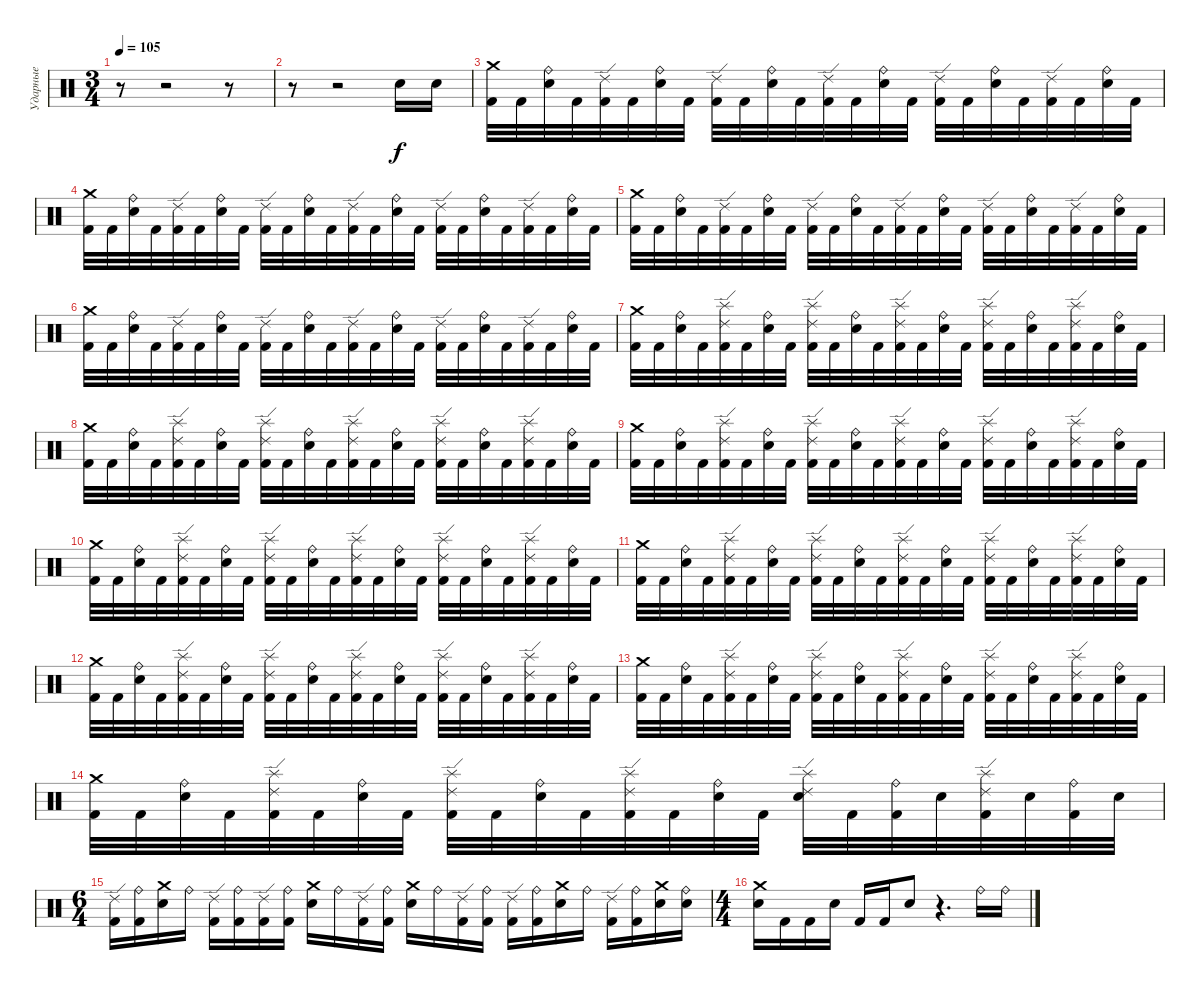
\track ("Ударные" "Ударные") {instrument percussion}
\staff {score}
\articulation defaults
\ts (3 4)
\tempo 105
\clef neutral
\ks c
r.8{dy f} r.2 r.8 |
r.8 r.2 "Electric Snare (hit)".16 "Electric Snare (hit)".16 |
("Crash medium (hit)" "Kick (hit) 2").32 "Kick (hit) 2".32 ("Ride (bell)" "Electric Snare (hit)").32 "Kick (hit) 2".32 ("Ride (edge) 2" "Kick (hit) 2").32 "Kick (hit) 2".32 ("Ride (bell)" "Electric Snare (hit)").32 "Kick (hit) 2".32 ("Ride (edge) 2" "Kick (hit) 2").32 "Kick (hit) 2".32 ("Ride (bell)" "Electric Snare (hit)").32 "Kick (hit) 2".32 ("Ride (edge) 2" "Kick (hit) 2").32 "Kick (hit) 2".32 ("Ride (bell)" "Electric Snare (hit)").32 "Kick (hit) 2".32 ("Ride (edge) 2" "Kick (hit) 2").32 "Kick (hit) 2".32 ("Ride (bell)" "Electric Snare (hit)").32 "Kick (hit) 2".32 ("Ride (edge) 2" "Kick (hit) 2").32 "Kick (hit) 2".32 ("Ride (bell)" "Electric Snare (hit)").32 "Kick (hit) 2".32 |
("Crash medium (hit)" "Kick (hit) 2").32 "Kick (hit) 2".32 ("Ride (bell)" "Electric Snare (hit)").32 "Kick (hit) 2".32 ("Ride (edge) 2" "Kick (hit) 2").32 "Kick (hit) 2".32 ("Ride (bell)" "Electric Snare (hit)").32 "Kick (hit) 2".32 ("Ride (edge) 2" "Kick (hit) 2").32 "Kick (hit) 2".32 ("Ride (bell)" "Electric Snare (hit)").32 "Kick (hit) 2".32 ("Ride (edge) 2" "Kick (hit) 2").32 "Kick (hit) 2".32 ("Ride (bell)" "Electric Snare (hit)").32 "Kick (hit) 2".32 ("Ride (edge) 2" "Kick (hit) 2").32 "Kick (hit) 2".32 ("Ride (bell)" "Electric Snare (hit)").32 "Kick (hit) 2".32 ("Ride (edge) 2" "Kick (hit) 2").32 "Kick (hit) 2".32 ("Ride (bell)" "Electric Snare (hit)").32 "Kick (hit) 2".32 |
("Crash medium (hit)" "Kick (hit) 2").32 "Kick (hit) 2".32 ("Ride (bell)" "Electric Snare (hit)").32 "Kick (hit) 2".32 ("Ride (edge) 2" "Kick (hit) 2").32 "Kick (hit) 2".32 ("Ride (bell)" "Electric Snare (hit)").32 "Kick (hit) 2".32 ("Ride (edge) 2" "Kick (hit) 2").32 "Kick (hit) 2".32 ("Ride (bell)" "Electric Snare (hit)").32 "Kick (hit) 2".32 ("Ride (edge) 2" "Kick (hit) 2").32 "Kick (hit) 2".32 ("Ride (bell)" "Electric Snare (hit)").32 "Kick (hit) 2".32 ("Ride (edge) 2" "Kick (hit) 2").32 "Kick (hit) 2".32 ("Ride (bell)" "Electric Snare (hit)").32 "Kick (hit) 2".32 ("Ride (edge) 2" "Kick (hit) 2").32 "Kick (hit) 2".32 ("Ride (bell)" "Electric Snare (hit)").32 "Kick (hit) 2".32 |
("Crash medium (hit)" "Kick (hit) 2").32 "Kick (hit) 2".32 ("Ride (bell)" "Electric Snare (hit)").32 "Kick (hit) 2".32 ("Ride (edge) 2" "Kick (hit) 2").32 "Kick (hit) 2".32 ("Ride (bell)" "Electric Snare (hit)").32 "Kick (hit) 2".32 ("Ride (edge) 2" "Kick (hit) 2").32 "Kick (hit) 2".32 ("Ride (bell)" "Electric Snare (hit)").32 "Kick (hit) 2".32 ("Ride (edge) 2" "Kick (hit) 2").32 "Kick (hit) 2".32 ("Ride (bell)" "Electric Snare (hit)").32 "Kick (hit) 2".32 ("Ride (edge) 2" "Kick (hit) 2").32 "Kick (hit) 2".32 ("Ride (bell)" "Electric Snare (hit)").32 "Kick (hit) 2".32 ("Ride (edge) 2" "Kick (hit) 2").32 "Kick (hit) 2".32 ("Ride (bell)" "Electric Snare (hit)").32 "Kick (hit) 2".32 |
("Crash medium (hit)" "Kick (hit) 2").32 "Kick (hit) 2".32 ("Ride (bell)" "Electric Snare (hit)").32 "Kick (hit) 2".32 ("Splash (hit)" "Ride (edge) 2" "Kick (hit) 2").32 "Kick (hit) 2".32 ("Ride (bell)" "Electric Snare (hit)").32 "Kick (hit) 2".32 ("Splash (hit)" "Ride (edge) 2" "Kick (hit) 2").32 "Kick (hit) 2".32 ("Ride (bell)" "Electric Snare (hit)").32 "Kick (hit) 2".32 ("Splash (hit)" "Ride (edge) 2" "Kick (hit) 2").32 "Kick (hit) 2".32 ("Ride (bell)" "Electric Snare (hit)").32 "Kick (hit) 2".32 ("Splash (hit)" "Ride (edge) 2" "Kick (hit) 2").32 "Kick (hit) 2".32 ("Ride (bell)" "Electric Snare (hit)").32 "Kick (hit) 2".32 ("Splash (hit)" "Ride (edge) 2" "Kick (hit) 2").32 "Kick (hit) 2".32 ("Ride (bell)" "Electric Snare (hit)").32 "Kick (hit) 2".32 |
("Crash medium (hit)" "Kick (hit) 2").32 "Kick (hit) 2".32 ("Ride (bell)" "Electric Snare (hit)").32 "Kick (hit) 2".32 ("Splash (hit)" "Ride (edge) 2" "Kick (hit) 2").32 "Kick (hit) 2".32 ("Ride (bell)" "Electric Snare (hit)").32 "Kick (hit) 2".32 ("Splash (hit)" "Ride (edge) 2" "Kick (hit) 2").32 "Kick (hit) 2".32 ("Ride (bell)" "Electric Snare (hit)").32 "Kick (hit) 2".32 ("Splash (hit)" "Ride (edge) 2" "Kick (hit) 2").32 "Kick (hit) 2".32 ("Ride (bell)" "Electric Snare (hit)").32 "Kick (hit) 2".32 ("Splash (hit)" "Ride (edge) 2" "Kick (hit) 2").32 "Kick (hit) 2".32 ("Ride (bell)" "Electric Snare (hit)").32 "Kick (hit) 2".32 ("Splash (hit)" "Ride (edge) 2" "Kick (hit) 2").32 "Kick (hit) 2".32 ("Ride (bell)" "Electric Snare (hit)").32 "Kick (hit) 2".32 |
("Crash medium (hit)" "Kick (hit) 2").32 "Kick (hit) 2".32 ("Ride (bell)" "Electric Snare (hit)").32 "Kick (hit) 2".32 ("Splash (hit)" "Ride (edge) 2" "Kick (hit) 2").32 "Kick (hit) 2".32 ("Ride (bell)" "Electric Snare (hit)").32 "Kick (hit) 2".32 ("Splash (hit)" "Ride (edge) 2" "Kick (hit) 2").32 "Kick (hit) 2".32 ("Ride (bell)" "Electric Snare (hit)").32 "Kick (hit) 2".32 ("Splash (hit)" "Ride (edge) 2" "Kick (hit) 2").32 "Kick (hit) 2".32 ("Ride (bell)" "Electric Snare (hit)").32 "Kick (hit) 2".32 ("Splash (hit)" "Ride (edge) 2" "Kick (hit) 2").32 "Kick (hit) 2".32 ("Ride (bell)" "Electric Snare (hit)").32 "Kick (hit) 2".32 ("Splash (hit)" "Ride (edge) 2" "Kick (hit) 2").32 "Kick (hit) 2".32 ("Ride (bell)" "Electric Snare (hit)").32 "Kick (hit) 2".32 |
("Crash medium (hit)" "Kick (hit) 2").32 "Kick (hit) 2".32 ("Ride (bell)" "Electric Snare (hit)").32 "Kick (hit) 2".32 ("Splash (hit)" "Ride (edge) 2" "Kick (hit) 2").32 "Kick (hit) 2".32 ("Ride (bell)" "Electric Snare (hit)").32 "Kick (hit) 2".32 ("Splash (hit)" "Ride (edge) 2" "Kick (hit) 2").32 "Kick (hit) 2".32 ("Ride (bell)" "Electric Snare (hit)").32 "Kick (hit) 2".32 ("Splash (hit)" "Ride (edge) 2" "Kick (hit) 2").32 "Kick (hit) 2".32 ("Ride (bell)" "Electric Snare (hit)").32 "Kick (hit) 2".32 ("Splash (hit)" "Ride (edge) 2" "Kick (hit) 2").32 "Kick (hit) 2".32 ("Ride (bell)" "Electric Snare (hit)").32 "Kick (hit) 2".32 ("Splash (hit)" "Ride (edge) 2" "Kick (hit) 2").32 "Kick (hit) 2".32 ("Ride (bell)" "Electric Snare (hit)").32 "Kick (hit) 2".32 |
("Crash medium (hit)" "Kick (hit) 2").32 "Kick (hit) 2".32 ("Ride (bell)" "Electric Snare (hit)").32 "Kick (hit) 2".32 ("Splash (hit)" "Ride (edge) 2" "Kick (hit) 2").32 "Kick (hit) 2".32 ("Ride (bell)" "Electric Snare (hit)").32 "Kick (hit) 2".32 ("Splash (hit)" "Ride (edge) 2" "Kick (hit) 2").32 "Kick (hit) 2".32 ("Ride (bell)" "Electric Snare (hit)").32 "Kick (hit) 2".32 ("Splash (hit)" "Ride (edge) 2" "Kick (hit) 2").32 "Kick (hit) 2".32 ("Ride (bell)" "Electric Snare (hit)").32 "Kick (hit) 2".32 ("Splash (hit)" "Ride (edge) 2" "Kick (hit) 2").32 "Kick (hit) 2".32 ("Ride (bell)" "Electric Snare (hit)").32 "Kick (hit) 2".32 ("Splash (hit)" "Ride (edge) 2" "Kick (hit) 2").32 "Kick (hit) 2".32 ("Ride (bell)" "Electric Snare (hit)").32 "Kick (hit) 2".32 |
("Crash medium (hit)" "Kick (hit) 2").32 "Kick (hit) 2".32 ("Ride (bell)" "Electric Snare (hit)").32 "Kick (hit) 2".32 ("Splash (hit)" "Ride (edge) 2" "Kick (hit) 2").32 "Kick (hit) 2".32 ("Ride (bell)" "Electric Snare (hit)").32 "Kick (hit) 2".32 ("Splash (hit)" "Ride (edge) 2" "Kick (hit) 2").32 "Kick (hit) 2".32 ("Ride (bell)" "Electric Snare (hit)").32 "Kick (hit) 2".32 ("Splash (hit)" "Ride (edge) 2" "Kick (hit) 2").32 "Kick (hit) 2".32 ("Ride (bell)" "Electric Snare (hit)").32 "Kick (hit) 2".32 ("Splash (hit)" "Ride (edge) 2" "Kick (hit) 2").32 "Kick (hit) 2".32 ("Ride (bell)" "Electric Snare (hit)").32 "Kick (hit) 2".32 ("Splash (hit)" "Ride (edge) 2" "Kick (hit) 2").32 "Kick (hit) 2".32 ("Ride (bell)" "Electric Snare (hit)").32 "Kick (hit) 2".32 |
("Crash medium (hit)" "Kick (hit) 2").32 "Kick (hit) 2".32 ("Ride (bell)" "Electric Snare (hit)").32 "Kick (hit) 2".32 ("Splash (hit)" "Ride (edge) 2" "Kick (hit) 2").32 "Kick (hit) 2".32 ("Ride (bell)" "Electric Snare (hit)").32 "Kick (hit) 2".32 ("Splash (hit)" "Ride (edge) 2" "Kick (hit) 2").32 "Kick (hit) 2".32 ("Ride (bell)" "Electric Snare (hit)").32 "Kick (hit) 2".32 ("Splash (hit)" "Ride (edge) 2" "Kick (hit) 2").32 "Kick (hit) 2".32 ("Ride (bell)" "Electric Snare (hit)").32 "Kick (hit) 2".32 ("Splash (hit)" "Ride (edge) 2" "Kick (hit) 2").32 "Kick (hit) 2".32 ("Ride (bell)" "Electric Snare (hit)").32 "Kick (hit) 2".32 ("Splash (hit)" "Ride (edge) 2" "Kick (hit) 2").32 "Kick (hit) 2".32 ("Ride (bell)" "Electric Snare (hit)").32 "Kick (hit) 2".32 |
("Crash medium (hit)" "Kick (hit) 2").32 "Kick (hit) 2".32 ("Ride (bell)" "Electric Snare (hit)").32 "Kick (hit) 2".32 ("Splash (hit)" "Ride (edge) 2" "Kick (hit) 2").32 "Kick (hit) 2".32 ("Ride (bell)" "Electric Snare (hit)").32 "Kick (hit) 2".32 ("Splash (hit)" "Ride (edge) 2" "Kick (hit) 2").32 "Kick (hit) 2".32 ("Ride (bell)" "Electric Snare (hit)").32 "Kick (hit) 2".32 ("Splash (hit)" "Ride (edge) 2" "Kick (hit) 2").32 "Kick (hit) 2".32 ("Ride (bell)" "Electric Snare (hit)").32 "Kick (hit) 2".32 ("Splash (hit)" "Ride (edge) 2" "Electric Snare (hit)").32 "Kick (hit) 2".32 ("Ride (bell)" "Kick (hit) 2").32 "Electric Snare (hit)".32 ("Splash (hit)" "Ride (edge) 2" "Kick (hit) 2").32 "Electric Snare (hit)".32 ("Ride (bell)" "Kick (hit) 2").32 "Electric Snare (hit)".32 |
\ts (6 4)
("Ride (edge) 2" "Kick (hit) 2").16 ("Ride (bell)" "Kick (hit) 2").16 ("Crash medium (hit)" "Electric Snare (hit)").16 "Ride (bell)".16 ("Ride (edge) 2" "Kick (hit) 2").16 ("Ride (bell)" "Kick (hit) 2").16 ("Ride (edge) 2" "Kick (hit) 2").16 ("Ride (bell)" "Kick (hit) 2").16 ("Crash medium (hit)" "Electric Snare (hit)").16 "Ride (bell)".16 ("Ride (edge) 2" "Kick (hit) 2").16 ("Ride (bell)" "Kick (hit) 2").16 ("Crash medium (hit)" "Electric Snare (hit)").16 "Ride (bell)".16 ("Ride (edge) 2" "Kick (hit) 2").16 ("Ride (bell)" "Kick (hit) 2").16 ("Ride (edge) 2" "Kick (hit) 2").16 ("Ride (bell)" "Kick (hit) 2").16 ("Crash medium (hit)" "Electric Snare (hit)").16 "Ride (bell)".16 ("Ride (edge) 2" "Kick (hit) 2").16 ("Ride (bell)" "Kick (hit) 2").16 ("Crash medium (hit)" "Electric Snare (hit)").16 ("Ride (bell)" "Electric Snare (hit)").16 |
\ts (4 4)
("Crash medium (hit)" "Electric Snare (hit)").16 "Kick (hit) 2".16 "Kick (hit) 2".16 "Electric Snare (hit)".16 "Kick (hit) 2".16 "Kick (hit) 2".16 "Electric Snare (hit)".8 r.4{d} "Ride (bell)".16 "Ride (bell)".16
